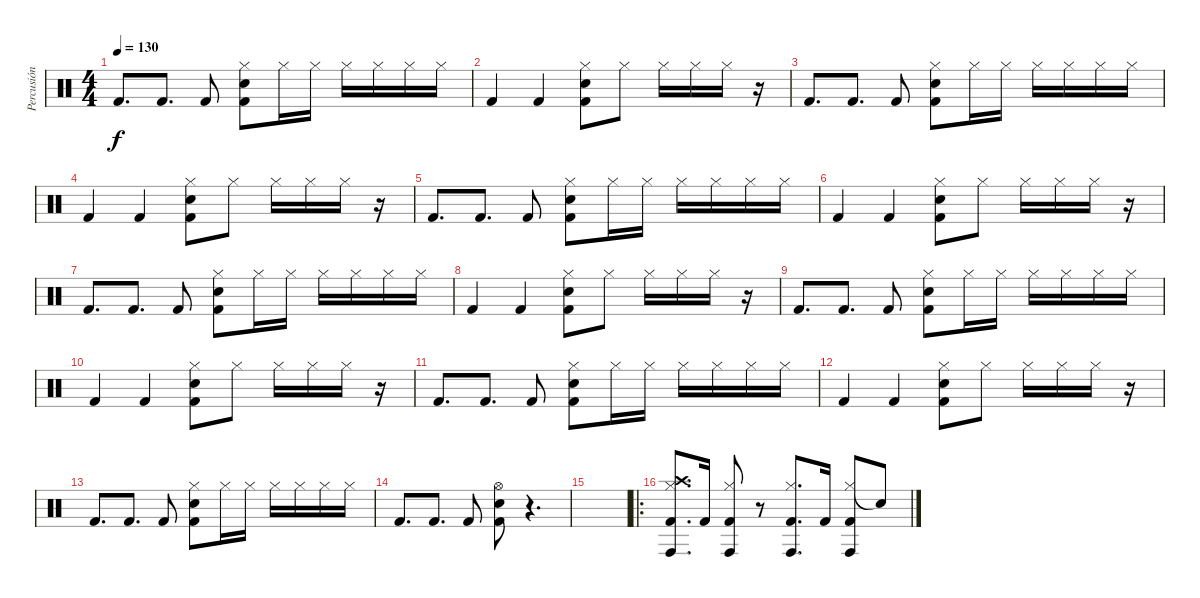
\track ("Percusión" "Percusión") {instrument percussion}
\staff {score}
\articulation defaults
\ts (4 4)
\tempo 130
\clef neutral
\ks c "Kick (hit) 2".8{d dy f} "Kick (hit) 2".8{d} "Kick (hit) 2".8
("Hi-Hat (closed)" "Electric Snare (hit)" "Kick (hit) 2").8 "Hi-Hat (closed)".16 "Hi-Hat (closed)".16 "Hi-Hat (closed)".16 "Hi-Hat (closed)".16 "Hi-Hat (closed)".16 "Hi-Hat (closed)".16 |
"Kick (hit) 2".4 "Kick (hit) 2".4 ("Hi-Hat (closed)" "Electric Snare (hit)" "Kick (hit) 2").8 "Hi-Hat (closed)".8 "Hi-Hat (closed)".16 "Hi-Hat (closed)".16 "Hi-Hat (closed)".16 r.16 |
"Kick (hit) 2".8{d} "Kick (hit) 2".8{d} "Kick (hit) 2".8 ("Hi-Hat (closed)" "Electric Snare (hit)" "Kick (hit) 2").8 "Hi-Hat (closed)".16 "Hi-Hat (closed)".16 "Hi-Hat (closed)".16 "Hi-Hat (closed)".16 "Hi-Hat (closed)".16 "Hi-Hat (closed)".16 |
"Kick (hit) 2".4 "Kick (hit) 2".4 ("Hi-Hat (closed)" "Electric Snare (hit)" "Kick (hit) 2").8 "Hi-Hat (closed)".8 "Hi-Hat (closed)".16 "Hi-Hat (closed)".16 "Hi-Hat (closed)".16 r.16 |
"Kick (hit) 2".8{d} "Kick (hit) 2".8{d} "Kick (hit) 2".8 ("Hi-Hat (closed)" "Electric Snare (hit)" "Kick (hit) 2").8 "Hi-Hat (closed)".16 "Hi-Hat (closed)".16 "Hi-Hat (closed)".16 "Hi-Hat (closed)".16 "Hi-Hat (closed)".16 "Hi-Hat (closed)".16 |
"Kick (hit) 2".4 "Kick (hit) 2".4 ("Hi-Hat (closed)" "Electric Snare (hit)" "Kick (hit) 2").8 "Hi-Hat (closed)".8 "Hi-Hat (closed)".16 "Hi-Hat (closed)".16 "Hi-Hat (closed)".16 r.16 |
"Kick (hit) 2".8{d} "Kick (hit) 2".8{d} "Kick (hit) 2".8 ("Hi-Hat (closed)" "Electric Snare (hit)" "Kick (hit) 2").8 "Hi-Hat (closed)".16 "Hi-Hat (closed)".16 "Hi-Hat (closed)".16 "Hi-Hat (closed)".16 "Hi-Hat (closed)".16 "Hi-Hat (closed)".16 |
"Kick (hit) 2".4 "Kick (hit) 2".4 ("Hi-Hat (closed)" "Electric Snare (hit)" "Kick (hit) 2").8 "Hi-Hat (closed)".8 "Hi-Hat (closed)".16 "Hi-Hat (closed)".16 "Hi-Hat (closed)".16 r.16 |
"Kick (hit) 2".8{d} "Kick (hit) 2".8{d} "Kick (hit) 2".8 ("Hi-Hat (closed)" "Electric Snare (hit)" "Kick (hit) 2").8 "Hi-Hat (closed)".16 "Hi-Hat (closed)".16 "Hi-Hat (closed)".16 "Hi-Hat (closed)".16 "Hi-Hat (closed)".16 "Hi-Hat (closed)".16 |
"Kick (hit) 2".4 "Kick (hit) 2".4 ("Hi-Hat (closed)" "Electric Snare (hit)" "Kick (hit) 2").8 "Hi-Hat (closed)".8 "Hi-Hat (closed)".16 "Hi-Hat (closed)".16 "Hi-Hat (closed)".16 r.16 |
"Kick (hit) 2".8{d} "Kick (hit) 2".8{d} "Kick (hit) 2".8 ("Hi-Hat (closed)" "Electric Snare (hit)" "Kick (hit) 2").8 "Hi-Hat (closed)".16 "Hi-Hat (closed)".16 "Hi-Hat (closed)".16 "Hi-Hat (closed)".16 "Hi-Hat (closed)".16 "Hi-Hat (closed)".16 |
"Kick (hit) 2".4 "Kick (hit) 2".4 ("Hi-Hat (closed)" "Electric Snare (hit)" "Kick (hit) 2").8 "Hi-Hat (closed)".8 "Hi-Hat (closed)".16 "Hi-Hat (closed)".16 "Hi-Hat (closed)".16 r.16 |
"Kick (hit) 2".8{d} "Kick (hit) 2".8{d} "Kick (hit) 2".8 ("Hi-Hat (closed)" "Electric Snare (hit)" "Kick (hit) 2").8 "Hi-Hat (closed)".16 "Hi-Hat (closed)".16 "Hi-Hat (closed)".16 "Hi-Hat (closed)".16 "Hi-Hat (closed)".16 "Hi-Hat (closed)".16 |
"Kick (hit) 2".8{d} "Kick (hit) 2".8{d} "Kick (hit) 2".8 ("Hi-Hat (open)" "Electric Snare (hit)" "Kick (hit) 2").8 r.4{d} |
|
\ro
("Crash high (hit)" "Hi-Hat (closed)" "Kick (hit) 2" "Conga high (hit)").8{d volume 6} "Kick (hit) 2".16 ("Hi-Hat (closed)" "Kick (hit) 2" "Conga high (hit)").8 r.8 ("Hi-Hat (closed)" "Kick (hit) 2" "Conga high (hit)").8{d} "Kick (hit) 2".16 ("Hi-Hat (closed)" "Kick (hit) 2" "Conga high (hit)").8 "Snare (hit)"{t}.8
